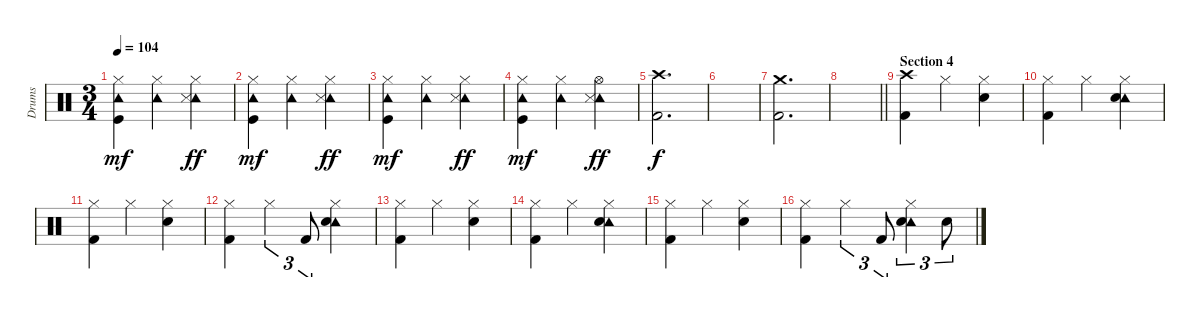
\track ("Drums" "Drums") {instrument percussion}
\staff {score}
\articulation defaults
\ts (3 4)
\tempo 104
\clef neutral
\ks c
("Hi-Hat (closed)" "Tambourine (hit)" "Kick (hit)").4{dy mf} ("Hi-Hat (closed)" "Tambourine (hit)").4 ("Hi-Hat (closed)" "Tambourine (hit)" "Snare (side stick) 3").4{dy ff} |
("Hi-Hat (closed)" "Tambourine (hit)" "Kick (hit)").4{dy mf} ("Hi-Hat (closed)" "Tambourine (hit)").4 ("Hi-Hat (closed)" "Tambourine (hit)" "Snare (side stick) 3").4{dy ff} |
("Hi-Hat (closed)" "Tambourine (hit)" "Kick (hit)").4{dy mf} ("Hi-Hat (closed)" "Tambourine (hit)").4 ("Hi-Hat (closed)" "Tambourine (hit)" "Snare (side stick) 3").4{dy ff} |
("Hi-Hat (closed)" "Tambourine (hit)" "Kick (hit)").4{dy mf} ("Hi-Hat (closed)" "Tambourine (hit)").4 ("Hi-Hat (open)" "Tambourine (hit)" "Snare (side stick) 3").4{dy ff} |
("Crash high (hit)" "Kick (hit) 2").2{d dy f} |
|
("Crash medium (hit)" "Kick (hit) 2").2{d} |
\barLineRight lightlight
|
\section ("" "Section 4")
("Crash high (hit)" "Kick (hit) 2").4{volume 12} "Hi-Hat (closed)".4 ("Hi-Hat (closed)" "Snare (hit) 2").4 |
("Hi-Hat (closed)" "Kick (hit) 2").4 "Hi-Hat (closed)".4 ("Hi-Hat (closed)" "Tambourine (hit)" "Snare (hit) 2").4 |
("Hi-Hat (closed)" "Kick (hit) 2").4 "Hi-Hat (closed)".4 ("Hi-Hat (closed)" "Snare (hit) 2").4 |
("Hi-Hat (closed)" "Kick (hit) 2").4 "Hi-Hat (closed)".4{tu (3 2)} "Kick (hit) 2".8{tu (3 2)} ("Hi-Hat (closed)" "Tambourine (hit)" "Snare (hit) 2").4 |
("Hi-Hat (closed)" "Kick (hit) 2").4 "Hi-Hat (closed)".4 ("Hi-Hat (closed)" "Snare (hit) 2").4 |
("Hi-Hat (closed)" "Kick (hit) 2").4 "Hi-Hat (closed)".4 ("Hi-Hat (closed)" "Tambourine (hit)" "Snare (hit) 2").4 |
("Hi-Hat (closed)" "Kick (hit) 2").4 "Hi-Hat (closed)".4 ("Hi-Hat (closed)" "Snare (hit) 2").4 |
("Hi-Hat (closed)" "Kick (hit) 2").4 "Hi-Hat (closed)".4{tu (3 2)} "Kick (hit) 2".8{tu (3 2)} ("Hi-Hat (closed)" "Tambourine (hit)" "Snare (hit) 2").4{tu (3 2)} "Snare (hit) 2".8{tu (3 2)}
